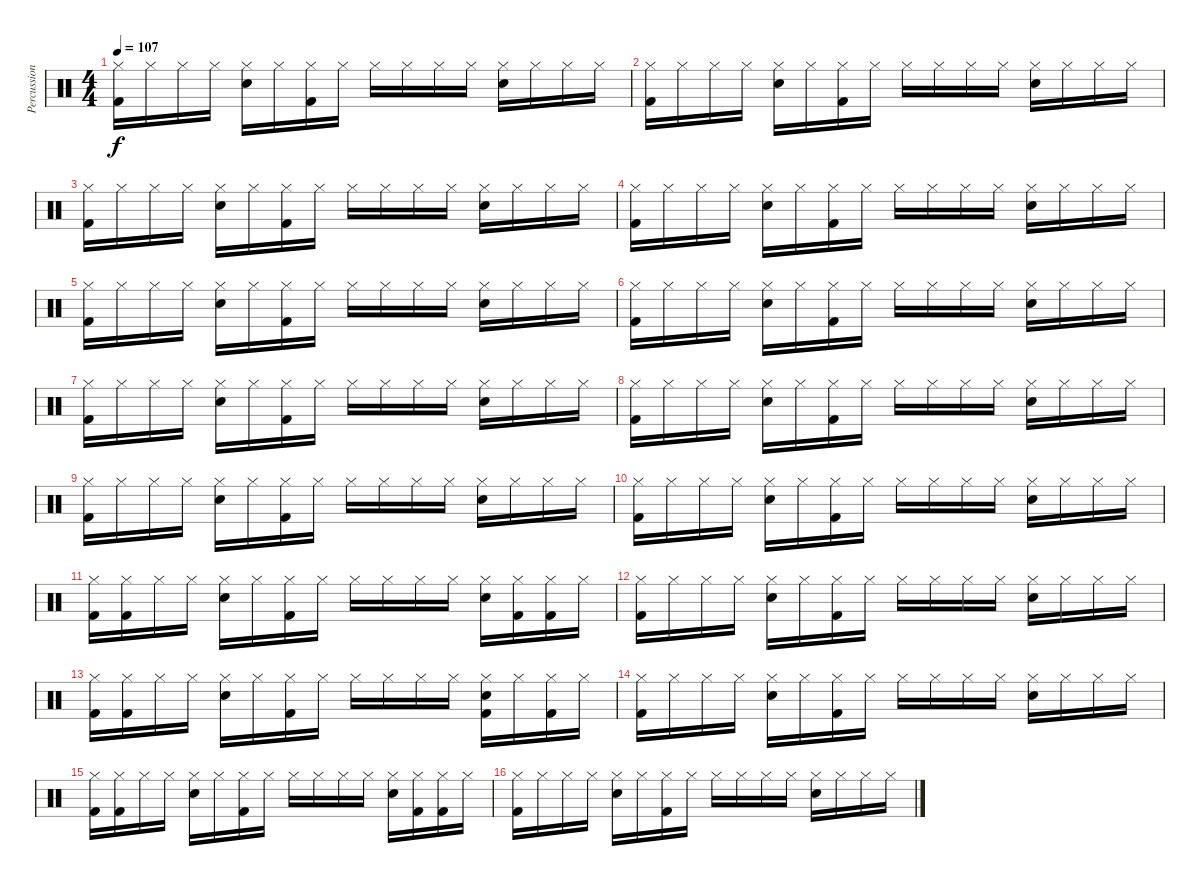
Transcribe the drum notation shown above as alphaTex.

\track ("Percussion" "Percussion") {instrument percussion}
\staff {score}
\articulation defaults
\ts (4 4)
\tempo 107
\clef neutral
\ks c
("Hi-Hat (closed)" "Kick (hit) 2").16{dy f} "Hi-Hat (closed)".16 "Hi-Hat (closed)".16 "Hi-Hat (closed)".16 ("Hi-Hat (closed)" "Snare (hit) 2").16 "Hi-Hat (closed)".16 ("Hi-Hat (closed)" "Kick (hit) 2").16 "Hi-Hat (closed)".16 "Hi-Hat (closed)".16 "Hi-Hat (closed)".16 "Hi-Hat (closed)".16 "Hi-Hat (closed)".16 ("Hi-Hat (closed)" "Snare (hit) 2").16 "Hi-Hat (closed)".16 "Hi-Hat (closed)".16 "Hi-Hat (closed)".16 |
("Hi-Hat (closed)" "Kick (hit) 2").16 "Hi-Hat (closed)".16 "Hi-Hat (closed)".16 "Hi-Hat (closed)".16 ("Hi-Hat (closed)" "Snare (hit) 2").16 "Hi-Hat (closed)".16 ("Hi-Hat (closed)" "Kick (hit) 2").16 "Hi-Hat (closed)".16 "Hi-Hat (closed)".16 "Hi-Hat (closed)".16 "Hi-Hat (closed)".16 "Hi-Hat (closed)".16 ("Hi-Hat (closed)" "Snare (hit) 2").16 "Hi-Hat (closed)".16 "Hi-Hat (closed)".16 "Hi-Hat (closed)".16 |
("Hi-Hat (closed)" "Kick (hit) 2").16 "Hi-Hat (closed)".16 "Hi-Hat (closed)".16 "Hi-Hat (closed)".16 ("Hi-Hat (closed)" "Snare (hit) 2").16 "Hi-Hat (closed)".16 ("Hi-Hat (closed)" "Kick (hit) 2").16 "Hi-Hat (closed)".16 "Hi-Hat (closed)".16 "Hi-Hat (closed)".16 "Hi-Hat (closed)".16 "Hi-Hat (closed)".16 ("Hi-Hat (closed)" "Snare (hit) 2").16 "Hi-Hat (closed)".16 "Hi-Hat (closed)".16 "Hi-Hat (closed)".16 |
("Hi-Hat (closed)" "Kick (hit) 2").16 "Hi-Hat (closed)".16 "Hi-Hat (closed)".16 "Hi-Hat (closed)".16 ("Hi-Hat (closed)" "Snare (hit) 2").16 "Hi-Hat (closed)".16 ("Hi-Hat (closed)" "Kick (hit) 2").16 "Hi-Hat (closed)".16 "Hi-Hat (closed)".16 "Hi-Hat (closed)".16 "Hi-Hat (closed)".16 "Hi-Hat (closed)".16 ("Hi-Hat (closed)" "Snare (hit) 2").16 "Hi-Hat (closed)".16 "Hi-Hat (closed)".16 "Hi-Hat (closed)".16 |
("Hi-Hat (closed)" "Kick (hit) 2").16 "Hi-Hat (closed)".16 "Hi-Hat (closed)".16 "Hi-Hat (closed)".16 ("Hi-Hat (closed)" "Snare (hit) 2").16 "Hi-Hat (closed)".16 ("Hi-Hat (closed)" "Kick (hit) 2").16 "Hi-Hat (closed)".16 "Hi-Hat (closed)".16 "Hi-Hat (closed)".16 "Hi-Hat (closed)".16 "Hi-Hat (closed)".16 ("Hi-Hat (closed)" "Snare (hit) 2").16 "Hi-Hat (closed)".16 "Hi-Hat (closed)".16 "Hi-Hat (closed)".16 |
("Hi-Hat (closed)" "Kick (hit) 2").16 "Hi-Hat (closed)".16 "Hi-Hat (closed)".16 "Hi-Hat (closed)".16 ("Hi-Hat (closed)" "Snare (hit) 2").16 "Hi-Hat (closed)".16 ("Hi-Hat (closed)" "Kick (hit) 2").16 "Hi-Hat (closed)".16 "Hi-Hat (closed)".16 "Hi-Hat (closed)".16 "Hi-Hat (closed)".16 "Hi-Hat (closed)".16 ("Hi-Hat (closed)" "Snare (hit) 2").16 "Hi-Hat (closed)".16 "Hi-Hat (closed)".16 "Hi-Hat (closed)".16 |
("Hi-Hat (closed)" "Kick (hit) 2").16 "Hi-Hat (closed)".16 "Hi-Hat (closed)".16 "Hi-Hat (closed)".16 ("Hi-Hat (closed)" "Snare (hit) 2").16 "Hi-Hat (closed)".16 ("Hi-Hat (closed)" "Kick (hit) 2").16 "Hi-Hat (closed)".16 "Hi-Hat (closed)".16 "Hi-Hat (closed)".16 "Hi-Hat (closed)".16 "Hi-Hat (closed)".16 ("Hi-Hat (closed)" "Snare (hit) 2").16 "Hi-Hat (closed)".16 "Hi-Hat (closed)".16 "Hi-Hat (closed)".16 |
("Hi-Hat (closed)" "Kick (hit) 2").16 "Hi-Hat (closed)".16 "Hi-Hat (closed)".16 "Hi-Hat (closed)".16 ("Hi-Hat (closed)" "Snare (hit) 2").16 "Hi-Hat (closed)".16 ("Hi-Hat (closed)" "Kick (hit) 2").16 "Hi-Hat (closed)".16 "Hi-Hat (closed)".16 "Hi-Hat (closed)".16 "Hi-Hat (closed)".16 "Hi-Hat (closed)".16 ("Hi-Hat (closed)" "Snare (hit) 2").16 "Hi-Hat (closed)".16 "Hi-Hat (closed)".16 "Hi-Hat (closed)".16 |
("Hi-Hat (closed)" "Kick (hit) 2").16 "Hi-Hat (closed)".16 "Hi-Hat (closed)".16 "Hi-Hat (closed)".16 ("Hi-Hat (closed)" "Snare (hit) 2").16 "Hi-Hat (closed)".16 ("Hi-Hat (closed)" "Kick (hit) 2").16 "Hi-Hat (closed)".16 "Hi-Hat (closed)".16 "Hi-Hat (closed)".16 "Hi-Hat (closed)".16 "Hi-Hat (closed)".16 ("Hi-Hat (closed)" "Snare (hit) 2").16 "Hi-Hat (closed)".16 "Hi-Hat (closed)".16 "Hi-Hat (closed)".16 |
("Hi-Hat (closed)" "Kick (hit) 2").16 "Hi-Hat (closed)".16 "Hi-Hat (closed)".16 "Hi-Hat (closed)".16 ("Hi-Hat (closed)" "Snare (hit) 2").16 "Hi-Hat (closed)".16 ("Hi-Hat (closed)" "Kick (hit) 2").16 "Hi-Hat (closed)".16 "Hi-Hat (closed)".16 "Hi-Hat (closed)".16 "Hi-Hat (closed)".16 "Hi-Hat (closed)".16 ("Hi-Hat (closed)" "Snare (hit) 2").16 "Hi-Hat (closed)".16 "Hi-Hat (closed)".16 "Hi-Hat (closed)".16 |
("Hi-Hat (closed)" "Kick (hit) 2").16 ("Hi-Hat (closed)" "Kick (hit) 2").16 "Hi-Hat (closed)".16 "Hi-Hat (closed)".16 ("Hi-Hat (closed)" "Snare (hit) 2").16 "Hi-Hat (closed)".16 ("Hi-Hat (closed)" "Kick (hit) 2").16 "Hi-Hat (closed)".16 "Hi-Hat (closed)".16 "Hi-Hat (closed)".16 "Hi-Hat (closed)".16 "Hi-Hat (closed)".16 ("Hi-Hat (closed)" "Snare (hit) 2").16 ("Hi-Hat (closed)" "Kick (hit) 2").16 ("Hi-Hat (closed)" "Kick (hit) 2").16 "Hi-Hat (closed)".16 |
("Hi-Hat (closed)" "Kick (hit) 2").16 "Hi-Hat (closed)".16 "Hi-Hat (closed)".16 "Hi-Hat (closed)".16 ("Hi-Hat (closed)" "Snare (hit) 2").16 "Hi-Hat (closed)".16 ("Hi-Hat (closed)" "Kick (hit) 2").16 "Hi-Hat (closed)".16 "Hi-Hat (closed)".16 "Hi-Hat (closed)".16 "Hi-Hat (closed)".16 "Hi-Hat (closed)".16 ("Hi-Hat (closed)" "Snare (hit) 2").16 "Hi-Hat (closed)".16 "Hi-Hat (closed)".16 "Hi-Hat (closed)".16 |
("Hi-Hat (closed)" "Kick (hit) 2").16 ("Hi-Hat (closed)" "Kick (hit) 2").16 "Hi-Hat (closed)".16 "Hi-Hat (closed)".16 ("Hi-Hat (closed)" "Snare (hit) 2").16 "Hi-Hat (closed)".16 ("Hi-Hat (closed)" "Kick (hit) 2").16 "Hi-Hat (closed)".16 "Hi-Hat (closed)".16 "Hi-Hat (closed)".16 "Hi-Hat (closed)".16 "Hi-Hat (closed)".16 ("Hi-Hat (closed)" "Snare (hit) 2" "Kick (hit) 2").16 "Hi-Hat (closed)".16 ("Hi-Hat (closed)" "Kick (hit) 2").16 "Hi-Hat (closed)".16 |
("Hi-Hat (closed)" "Kick (hit) 2").16 "Hi-Hat (closed)".16 "Hi-Hat (closed)".16 "Hi-Hat (closed)".16 ("Hi-Hat (closed)" "Snare (hit) 2").16 "Hi-Hat (closed)".16 ("Hi-Hat (closed)" "Kick (hit) 2").16 "Hi-Hat (closed)".16 "Hi-Hat (closed)".16 "Hi-Hat (closed)".16 "Hi-Hat (closed)".16 "Hi-Hat (closed)".16 ("Hi-Hat (closed)" "Snare (hit) 2").16 "Hi-Hat (closed)".16 "Hi-Hat (closed)".16 "Hi-Hat (closed)".16 |
("Hi-Hat (closed)" "Kick (hit) 2").16 ("Hi-Hat (closed)" "Kick (hit) 2").16 "Hi-Hat (closed)".16 "Hi-Hat (closed)".16 ("Hi-Hat (closed)" "Snare (hit) 2").16 "Hi-Hat (closed)".16 ("Hi-Hat (closed)" "Kick (hit) 2").16 "Hi-Hat (closed)".16 "Hi-Hat (closed)".16 "Hi-Hat (closed)".16 "Hi-Hat (closed)".16 "Hi-Hat (closed)".16 ("Hi-Hat (closed)" "Snare (hit) 2").16 ("Hi-Hat (closed)" "Kick (hit) 2").16 ("Hi-Hat (closed)" "Kick (hit) 2").16 "Hi-Hat (closed)".16 |
("Hi-Hat (closed)" "Kick (hit) 2").16 "Hi-Hat (closed)".16 "Hi-Hat (closed)".16 "Hi-Hat (closed)".16 ("Hi-Hat (closed)" "Snare (hit) 2").16 "Hi-Hat (closed)".16 ("Hi-Hat (closed)" "Kick (hit) 2").16 "Hi-Hat (closed)".16 "Hi-Hat (closed)".16 "Hi-Hat (closed)".16 "Hi-Hat (closed)".16 "Hi-Hat (closed)".16 ("Hi-Hat (closed)" "Snare (hit) 2").16 "Hi-Hat (closed)".16 "Hi-Hat (closed)".16 "Hi-Hat (closed)".16
